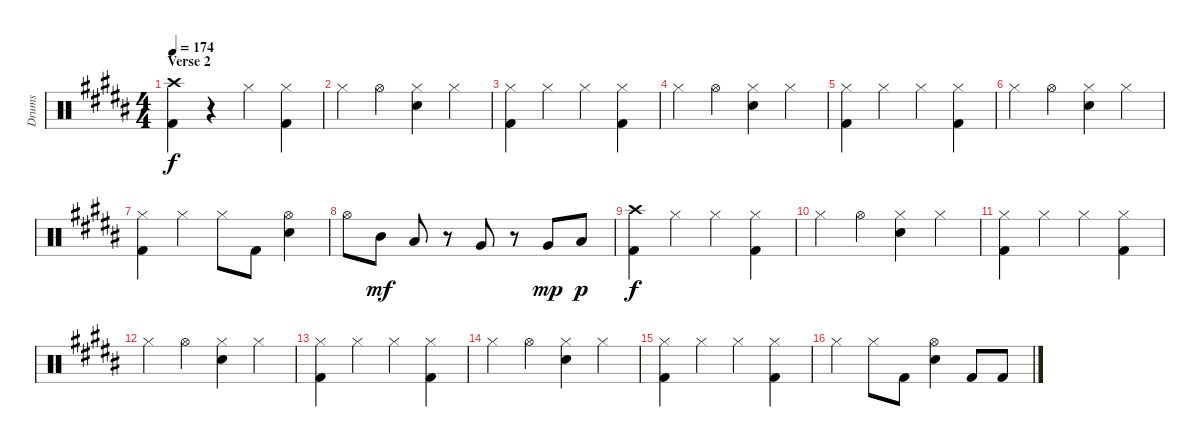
\track ("Drums" "Drums") {instrument percussion}
\staff {score}
\articulation defaults
\ts (4 4)
\section ("" "Verse 2")
\tempo 174
\clef neutral
\ks g#minor
("Crash high (hit)" "Kick (hit) 2").4{dy f} r.4 "Hi-Hat (closed)".4 ("Hi-Hat (closed)" "Kick (hit) 2").4 |
"Hi-Hat (closed)".4 "Hi-Hat (open)".4 ("Hi-Hat (closed)" "Electric Snare (hit)").4 "Hi-Hat (closed)".4 |
("Hi-Hat (closed)" "Kick (hit) 2").4 "Hi-Hat (closed)".4 "Hi-Hat (closed)".4 ("Hi-Hat (closed)" "Kick (hit) 2").4 |
"Hi-Hat (closed)".4 "Hi-Hat (open)".4 ("Hi-Hat (closed)" "Electric Snare (hit)").4 "Hi-Hat (closed)".4 |
("Hi-Hat (closed)" "Kick (hit) 2").4 "Hi-Hat (closed)".4 "Hi-Hat (closed)".4 ("Hi-Hat (closed)" "Kick (hit) 2").4 |
"Hi-Hat (closed)".4 "Hi-Hat (open)".4 ("Hi-Hat (closed)" "Electric Snare (hit)").4 "Hi-Hat (closed)".4 |
("Hi-Hat (closed)" "Kick (hit) 2").4 "Hi-Hat (closed)".4 "Hi-Hat (closed)".8 "Kick (hit) 2".8 ("Hi-Hat (open)" "Electric Snare (hit)").4 |
"Hi-Hat (open)".8 "Mid Tom (hit)".8{dy mf} "Low Tom (hit)".8 r.8 "Very Low Tom (hit)".8 r.8 "Very Low Tom (hit)".8{dy mp} "Low Floor Tom (hit)".8{dy p} |
("Crash high (hit)" "Kick (hit) 2").4{dy f} "Hi-Hat (closed)".4 "Hi-Hat (closed)".4 ("Hi-Hat (closed)" "Kick (hit) 2").4 |
"Hi-Hat (closed)".4 "Hi-Hat (open)".4 ("Hi-Hat (closed)" "Electric Snare (hit)").4 "Hi-Hat (closed)".4 |
("Hi-Hat (closed)" "Kick (hit) 2").4 "Hi-Hat (closed)".4 "Hi-Hat (closed)".4 ("Hi-Hat (closed)" "Kick (hit) 2").4 |
"Hi-Hat (closed)".4 "Hi-Hat (open)".4 ("Hi-Hat (closed)" "Electric Snare (hit)").4 "Hi-Hat (closed)".4 |
("Hi-Hat (closed)" "Kick (hit) 2").4 "Hi-Hat (closed)".4 "Hi-Hat (closed)".4 ("Hi-Hat (closed)" "Kick (hit) 2").4 |
"Hi-Hat (closed)".4 "Hi-Hat (open)".4 ("Hi-Hat (closed)" "Electric Snare (hit)").4 "Hi-Hat (closed)".4 |
("Hi-Hat (closed)" "Kick (hit) 2").4 "Hi-Hat (closed)".4 "Hi-Hat (closed)".4 ("Hi-Hat (closed)" "Kick (hit) 2").4 |
"Hi-Hat (closed)".4 "Hi-Hat (closed)".8 "Kick (hit) 2".8 ("Hi-Hat (open)" "Electric Snare (hit)").4 "Kick (hit) 2".8 "Kick (hit) 2".8
